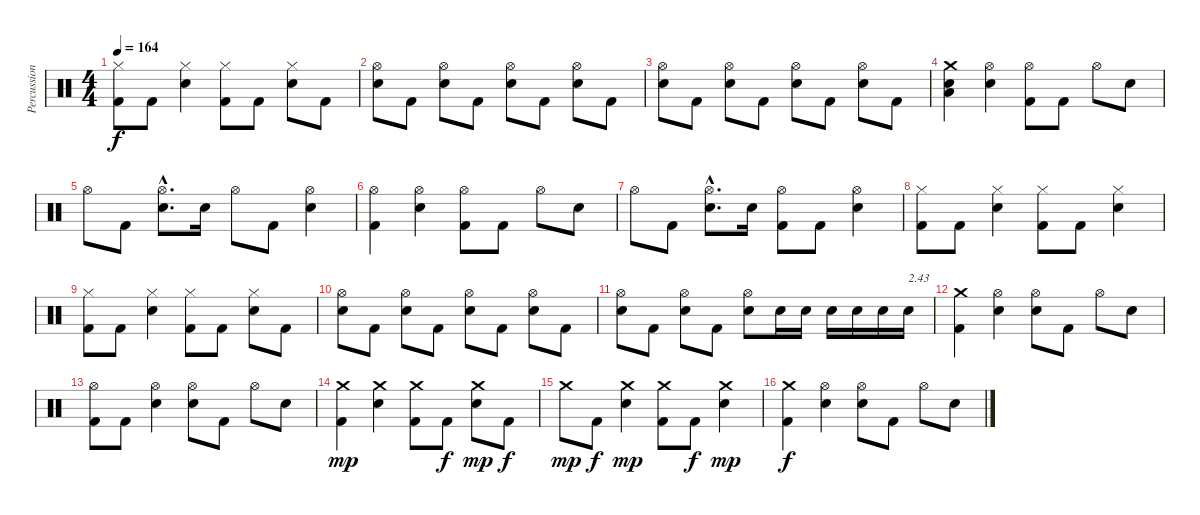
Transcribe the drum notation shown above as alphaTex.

\track ("Percussions" "Percussion") {instrument percussion}
\staff {score}
\articulation defaults
\ts (4 4)
\tempo 164
\clef neutral
\ks c
("Kick (hit) 2" "Hi-Hat (closed)").8{dy f} "Kick (hit) 2".8 ("Snare (hit) 2" "Hi-Hat (closed)").4 ("Kick (hit) 2" "Hi-Hat (closed)").8 "Kick (hit) 2".8 ("Snare (hit) 2" "Hi-Hat (closed)").8 "Kick (hit) 2".8 |
("Snare (hit) 2" "Hi-Hat (open)").8 "Kick (hit) 2".8 ("Snare (hit) 2" "Hi-Hat (open)").8 "Kick (hit) 2".8 ("Snare (hit) 2" "Hi-Hat (open)").8 "Kick (hit) 2".8 ("Snare (hit) 2" "Hi-Hat (open)").8 "Kick (hit) 2".8 |
("Snare (hit) 2" "Hi-Hat (open)").8 "Kick (hit) 2".8 ("Snare (hit) 2" "Hi-Hat (open)").8 "Kick (hit) 2".8 ("Snare (hit) 2" "Hi-Hat (open)").8 "Kick (hit) 2".8 ("Snare (hit) 2" "Hi-Hat (open)").8 "Kick (hit) 2".8 |
("Snare (hit) 2" "Low Tom (hit)" "Crash medium (hit)").4 ("Snare (hit) 2" "Hi-Hat (open)").4 ("Kick (hit) 2" "Hi-Hat (open)").8 "Kick (hit) 2".8 "Hi-Hat (open)".8 "Snare (hit) 2".8 |
"Hi-Hat (open)".8 "Kick (hit) 2".8 ("Snare (hit) 2"{hac} "Hi-Hat (open)"{hac}).8{d} "Snare (hit) 2".16 "Hi-Hat (open)".8 "Kick (hit) 2".8 ("Snare (hit) 2" "Hi-Hat (open)").4 |
("Kick (hit) 2" "Hi-Hat (open)").4 ("Snare (hit) 2" "Hi-Hat (open)").4 ("Kick (hit) 2" "Hi-Hat (open)").8 "Kick (hit) 2".8 "Hi-Hat (open)".8 "Snare (hit) 2".8 |
"Hi-Hat (open)".8 "Kick (hit) 2".8 ("Snare (hit) 2"{hac} "Hi-Hat (open)"{hac}).8{d} "Snare (hit) 2".16 ("Kick (hit) 2" "Hi-Hat (open)").8 "Kick (hit) 2".8 ("Snare (hit) 2" "Hi-Hat (open)").4 |
("Kick (hit) 2" "Hi-Hat (closed)").8 "Kick (hit) 2".8 ("Snare (hit) 2" "Hi-Hat (closed)").4 ("Kick (hit) 2" "Hi-Hat (closed)").8 "Kick (hit) 2".8 ("Snare (hit) 2" "Hi-Hat (closed)").4 |
("Kick (hit) 2" "Hi-Hat (closed)").8 "Kick (hit) 2".8 ("Snare (hit) 2" "Hi-Hat (closed)").4 ("Kick (hit) 2" "Hi-Hat (closed)").8 "Kick (hit) 2".8 ("Snare (hit) 2" "Hi-Hat (closed)").8 "Kick (hit) 2".8 |
("Snare (hit) 2" "Hi-Hat (open)").8 "Kick (hit) 2".8 ("Snare (hit) 2" "Hi-Hat (open)").8 "Kick (hit) 2".8 ("Snare (hit) 2" "Hi-Hat (open)").8 "Kick (hit) 2".8 ("Snare (hit) 2" "Hi-Hat (open)").8 "Kick (hit) 2".8 |
("Snare (hit) 2" "Hi-Hat (open)").8 "Kick (hit) 2".8 ("Snare (hit) 2" "Hi-Hat (open)").8 "Kick (hit) 2".8 ("Snare (hit) 2" "Hi-Hat (open)").8 "Snare (hit) 2".16 "Snare (hit) 2".16 "Snare (hit) 2".16 "Snare (hit) 2".16 "Snare (hit) 2".16 "Snare (hit) 2".16{txt "2.43"} |
("Kick (hit) 2" "Crash medium (hit)").4 ("Snare (hit) 2" "Hi-Hat (open)").4 ("Snare (hit) 2" "Hi-Hat (open)").8 "Kick (hit) 2".8 "Hi-Hat (open)".8 "Snare (hit) 2".8 |
("Kick (hit) 2" "Hi-Hat (open)").8 "Kick (hit) 2".8 ("Snare (hit) 2" "Hi-Hat (open)").4 ("Snare (hit) 2" "Hi-Hat (open)").8 "Kick (hit) 2".8 "Hi-Hat (open)".8 "Snare (hit) 2".8 |
("Kick (hit) 2" "Crash medium (hit)").4{dy mp} ("Snare (hit) 2" "Crash medium (hit)").4 ("Kick (hit) 2" "Crash medium (hit)").8 "Kick (hit) 2".8{dy f} ("Snare (hit) 2" "Crash medium (hit)").8{dy mp} "Kick (hit) 2".8{dy f} |
"Crash medium (hit)".8{dy mp} "Kick (hit) 2".8{dy f} ("Snare (hit) 2" "Crash medium (hit)").4{dy mp} ("Kick (hit) 2" "Crash medium (hit)").8 "Kick (hit) 2".8{dy f} ("Snare (hit) 2" "Crash medium (hit)").4{dy mp} |
("Kick (hit) 2" "Crash medium (hit)").4{dy f} ("Snare (hit) 2" "Hi-Hat (open)").4 ("Snare (hit) 2" "Hi-Hat (open)").8 "Kick (hit) 2".8 "Hi-Hat (open)".8 "Snare (hit) 2".8
